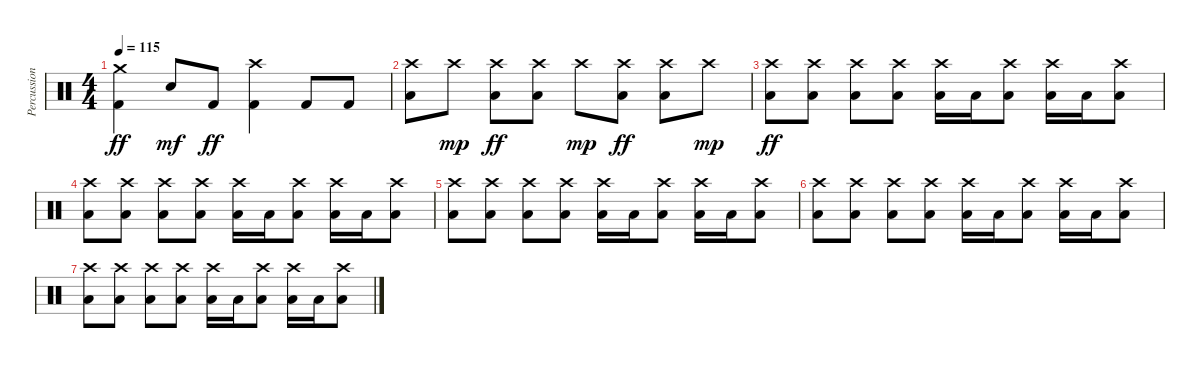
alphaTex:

\track ("Percussion" "Percussion") {instrument percussion}
\staff {score}
\articulation defaults
\ts (4 4)
\tempo 115
\clef neutral
\ks c
("Crash medium (hit)" "Kick (hit) 2").4{dy ff} "Snare (hit) 2".8{dy mf} "Kick (hit) 2".8{dy ff} ("Crash high (hit)" "Kick (hit) 2").4 "Kick (hit) 2".8 "Kick (hit) 2".8 |
("Crash high (hit)" "Low Floor Tom (hit)").8 "Crash high (hit)".8{dy mp} ("Crash high (hit)" "Low Floor Tom (hit)").8{dy ff} ("Crash high (hit)" "Low Floor Tom (hit)").8 "Crash high (hit)".8{dy mp} ("Crash high (hit)" "Low Floor Tom (hit)").8{dy ff} ("Crash high (hit)" "Low Floor Tom (hit)").8 "Crash high (hit)".8{dy mp} |
("Crash high (hit)" "Low Floor Tom (hit)").8{dy ff volume 0} ("Crash high (hit)" "Low Floor Tom (hit)").8 ("Crash high (hit)" "Low Floor Tom (hit)").8 ("Crash high (hit)" "Low Floor Tom (hit)").8 ("Crash high (hit)" "Low Floor Tom (hit)").16 "Low Floor Tom (hit)".16 ("Crash high (hit)" "Low Floor Tom (hit)").8 ("Crash high (hit)" "Low Floor Tom (hit)").16 "Low Floor Tom (hit)".16 ("Crash high (hit)" "Low Floor Tom (hit)").8 |
("Crash high (hit)" "Low Floor Tom (hit)").8 ("Crash high (hit)" "Low Floor Tom (hit)").8 ("Crash high (hit)" "Low Floor Tom (hit)").8 ("Crash high (hit)" "Low Floor Tom (hit)").8 ("Crash high (hit)" "Low Floor Tom (hit)").16 "Low Floor Tom (hit)".16 ("Crash high (hit)" "Low Floor Tom (hit)").8 ("Crash high (hit)" "Low Floor Tom (hit)").16 "Low Floor Tom (hit)".16 ("Crash high (hit)" "Low Floor Tom (hit)").8 |
("Crash high (hit)" "Low Floor Tom (hit)").8 ("Crash high (hit)" "Low Floor Tom (hit)").8 ("Crash high (hit)" "Low Floor Tom (hit)").8 ("Crash high (hit)" "Low Floor Tom (hit)").8 ("Crash high (hit)" "Low Floor Tom (hit)").16 "Low Floor Tom (hit)".16 ("Crash high (hit)" "Low Floor Tom (hit)").8 ("Crash high (hit)" "Low Floor Tom (hit)").16 "Low Floor Tom (hit)".16 ("Crash high (hit)" "Low Floor Tom (hit)").8 |
("Crash high (hit)" "Low Floor Tom (hit)").8 ("Crash high (hit)" "Low Floor Tom (hit)").8 ("Crash high (hit)" "Low Floor Tom (hit)").8 ("Crash high (hit)" "Low Floor Tom (hit)").8 ("Crash high (hit)" "Low Floor Tom (hit)").16 "Low Floor Tom (hit)".16 ("Crash high (hit)" "Low Floor Tom (hit)").8 ("Crash high (hit)" "Low Floor Tom (hit)").16 "Low Floor Tom (hit)".16 ("Crash high (hit)" "Low Floor Tom (hit)").8 |
("Crash high (hit)" "Low Floor Tom (hit)").8 ("Crash high (hit)" "Low Floor Tom (hit)").8 ("Crash high (hit)" "Low Floor Tom (hit)").8 ("Crash high (hit)" "Low Floor Tom (hit)").8 ("Crash high (hit)" "Low Floor Tom (hit)").16 "Low Floor Tom (hit)".16 ("Crash high (hit)" "Low Floor Tom (hit)").8 ("Crash high (hit)" "Low Floor Tom (hit)").16 "Low Floor Tom (hit)".16 ("Crash high (hit)" "Low Floor Tom (hit)").8
